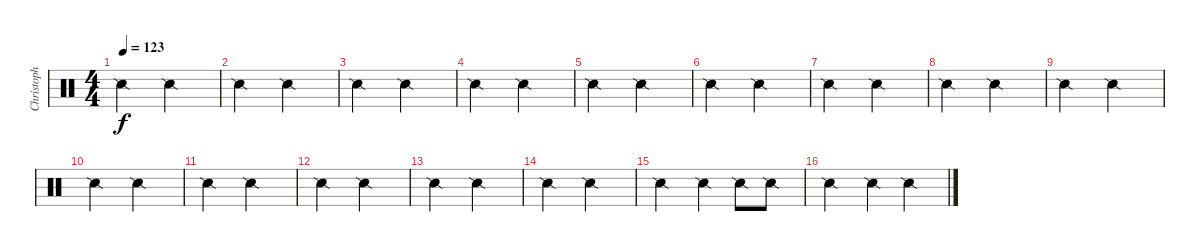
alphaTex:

\track ("Christoph DOOM Schneider" "Christoph ") {instrument percussion}
\staff {score}
\articulation defaults
\ts (4 4)
\tempo 123
\clef neutral
\ks c "Snare (side stick) 2".2{dy f} "Snare (side stick) 2".2
|
"Snare (side stick) 2".2 "Snare (side stick) 2".2 |
"Snare (side stick) 2".2 "Snare (side stick) 2".2 |
"Snare (side stick) 2".2 "Snare (side stick) 2".2 |
"Snare (side stick) 2".2 "Snare (side stick) 2".2 |
"Snare (side stick) 2".2 "Snare (side stick) 2".2 |
"Snare (side stick) 2".2 "Snare (side stick) 2".2 |
"Snare (side stick) 2".2 "Snare (side stick) 2".2 |
"Snare (side stick) 2".2 "Snare (side stick) 2".2 |
"Snare (side stick) 2".2 "Snare (side stick) 2".2 |
"Snare (side stick) 2".2 "Snare (side stick) 2".2 |
"Snare (side stick) 2".2 "Snare (side stick) 2".2 |
"Snare (side stick) 2".2 "Snare (side stick) 2".2 |
"Snare (side stick) 2".2 "Snare (side stick) 2".2 |
"Snare (side stick) 2".2 "Snare (side stick) 2".4 "Snare (side stick) 2".8 "Snare (side stick) 2".8 |
"Snare (side stick) 2".2 "Snare (side stick) 2".4 "Snare (side stick) 2".4
